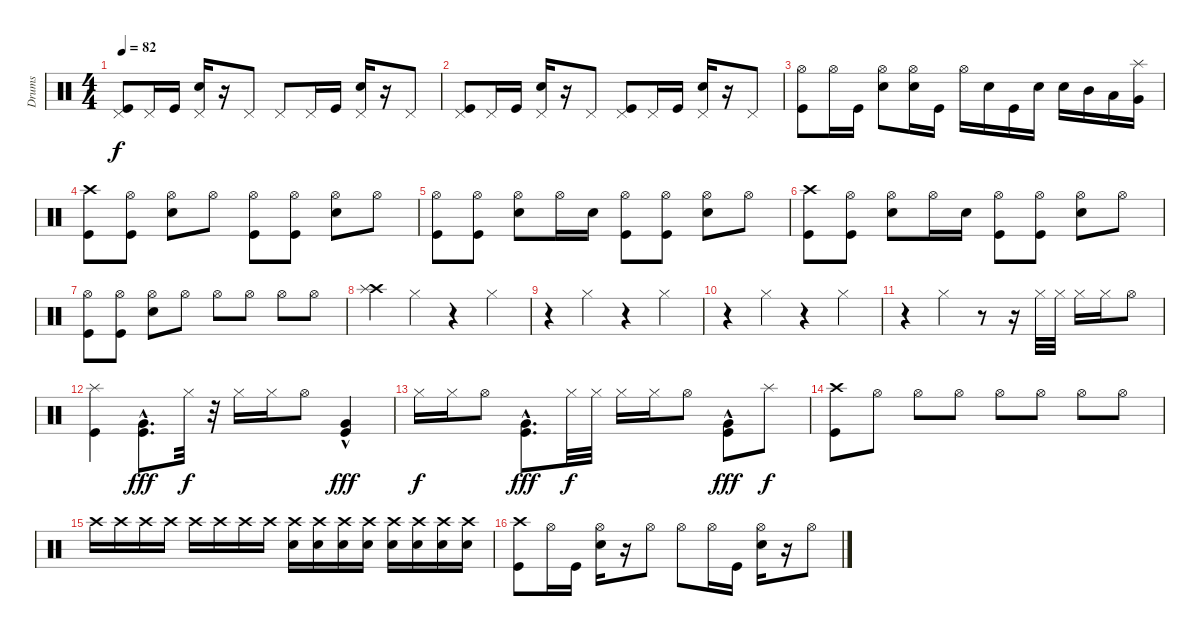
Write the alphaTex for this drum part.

\track ("Drums" "Drums") {instrument percussion}
\staff {score}
\articulation defaults
\ts (4 4)
\tempo 82
\clef neutral
\ks c
("Pedal Hi-Hat (hit)" "Kick (hit)").8{dy f} "Pedal Hi-Hat (hit)".16 "Kick (hit)".16 ("Pedal Hi-Hat (hit)" "Snare (hit) 2").16 r.16 "Pedal Hi-Hat (hit)".8 "Pedal Hi-Hat (hit)".8 "Pedal Hi-Hat (hit)".16 "Kick (hit)".16 ("Pedal Hi-Hat (hit)" "Snare (hit) 2").16 r.16 "Pedal Hi-Hat (hit)".8 |
("Pedal Hi-Hat (hit)" "Kick (hit)").8 "Pedal Hi-Hat (hit)".16 "Kick (hit)".16 ("Pedal Hi-Hat (hit)" "Snare (hit) 2").16 r.16 "Pedal Hi-Hat (hit)".8 ("Pedal Hi-Hat (hit)" "Kick (hit)").8 "Pedal Hi-Hat (hit)".16 "Kick (hit)".16 ("Pedal Hi-Hat (hit)" "Snare (hit) 2").16 r.16 "Pedal Hi-Hat (hit)".8 |
("Hi-Hat (open)" "Kick (hit)").8 "Hi-Hat (open)".16 "Kick (hit)".16 ("Hi-Hat (open)" "Snare (hit) 2").8 ("Hi-Hat (open)" "Snare (hit) 2").16 "Kick (hit)".16 "Hi-Hat (open)".16 "Snare (hit) 2".16 "Kick (hit)".16 "Snare (hit) 2".16 "Snare (hit) 2".16 "Mid Tom (hit)".16 "Low Tom (hit)".16 ("Splash (hit)" "Very Low Tom (hit)").16 |
("Crash high (hit)" "Kick (hit)").8 ("Hi-Hat (open)" "Kick (hit)").8 ("Hi-Hat (open)" "Snare (hit) 2").8 "Hi-Hat (open)".8 ("Hi-Hat (open)" "Kick (hit)").8 ("Hi-Hat (open)" "Kick (hit)").8 ("Hi-Hat (open)" "Snare (hit) 2").8 "Hi-Hat (open)".8 |
("Hi-Hat (open)" "Kick (hit)").8 ("Hi-Hat (open)" "Kick (hit)").8 ("Hi-Hat (open)" "Snare (hit) 2").8 "Hi-Hat (open)".16 "Snare (hit) 2".16 ("Hi-Hat (open)" "Kick (hit)").8 ("Hi-Hat (open)" "Kick (hit)").8 ("Hi-Hat (open)" "Snare (hit) 2").8 "Hi-Hat (open)".8 |
("Crash high (hit)" "Kick (hit)").8 ("Hi-Hat (open)" "Kick (hit)").8 ("Hi-Hat (open)" "Snare (hit) 2").8 "Hi-Hat (open)".16 "Snare (hit) 2".16 ("Hi-Hat (open)" "Kick (hit)").8 ("Hi-Hat (open)" "Kick (hit)").8 ("Hi-Hat (open)" "Snare (hit) 2").8 "Hi-Hat (open)".8 |
("Hi-Hat (open)" "Kick (hit)").8 ("Hi-Hat (open)" "Kick (hit)").8 ("Hi-Hat (open)" "Snare (hit) 2").8 "Hi-Hat (open)".8 "Hi-Hat (open)".8 "Hi-Hat (open)".8 "Hi-Hat (open)".8 "Hi-Hat (open)".8 |
("Crash high (hit)" "Splash (hit)").4 "Hi-Hat (closed)".4 r.4 "Hi-Hat (closed)".4 |
r.4 "Hi-Hat (closed)".4 r.4 "Hi-Hat (closed)".4 |
r.4 "Hi-Hat (closed)".4 r.4 "Hi-Hat (closed)".4 |
r.4 "Hi-Hat (closed)".4 r.8 r.16 "Hi-Hat (closed)".32 "Hi-Hat (closed)".32 "Hi-Hat (closed)".16 "Hi-Hat (closed)".16 "Hi-Hat (open)".8 |
("Splash (hit)" "Kick (hit)").4 ("Very Low Tom (hit)"{hac} "Kick (hit)"{hac}).8{d dy fff} "Hi-Hat (closed)".32{dy f} r.32 "Hi-Hat (closed)".16 "Hi-Hat (closed)".16 "Hi-Hat (open)".8 ("Very Low Tom (hit)"{hac} "Kick (hit)"{hac}).4{dy fff} |
"Hi-Hat (closed)".16{dy f} "Hi-Hat (closed)".16 "Hi-Hat (open)".8 ("Very Low Tom (hit)"{hac} "Kick (hit)"{hac}).8{d dy fff} "Hi-Hat (closed)".32{dy f} "Hi-Hat (closed)".32 "Hi-Hat (closed)".16 "Hi-Hat (closed)".16 "Hi-Hat (open)".8 ("Very Low Tom (hit)"{hac} "Kick (hit)"{hac}).8{dy fff} "Splash (hit)".8{dy f} |
("Crash high (hit)" "Kick (hit)").8 "Hi-Hat (open)".8 "Hi-Hat (open)".8 "Hi-Hat (open)".8 "Hi-Hat (open)".8 "Hi-Hat (open)".8 "Hi-Hat (open)".8 "Hi-Hat (open)".8 |
"Crash high (hit)".16{volume 4} "Crash high (hit)".16 "Crash high (hit)".16 "Crash high (hit)".16{volume 16} "Crash high (hit)".16 "Crash high (hit)".16 "Crash high (hit)".16 "Crash high (hit)".16 ("Crash high (hit)" "Snare (hit) 2").16 ("Crash high (hit)" "Snare (hit) 2").16 ("Crash high (hit)" "Snare (hit) 2").16 ("Crash high (hit)" "Snare (hit) 2").16 ("Crash high (hit)" "Snare (hit) 2").16 ("Crash high (hit)" "Snare (hit) 2").16 ("Crash high (hit)" "Snare (hit) 2").16 ("Crash high (hit)" "Snare (hit) 2").16 |
("Crash high (hit)" "Kick (hit)").8 "Hi-Hat (open)".16 "Kick (hit)".16 ("Hi-Hat (open)" "Snare (hit) 2").16 r.16 "Hi-Hat (open)".8 "Hi-Hat (open)".8 "Hi-Hat (open)".16 "Kick (hit)".16 ("Hi-Hat (open)" "Snare (hit) 2").16 r.16 "Hi-Hat (open)".8
